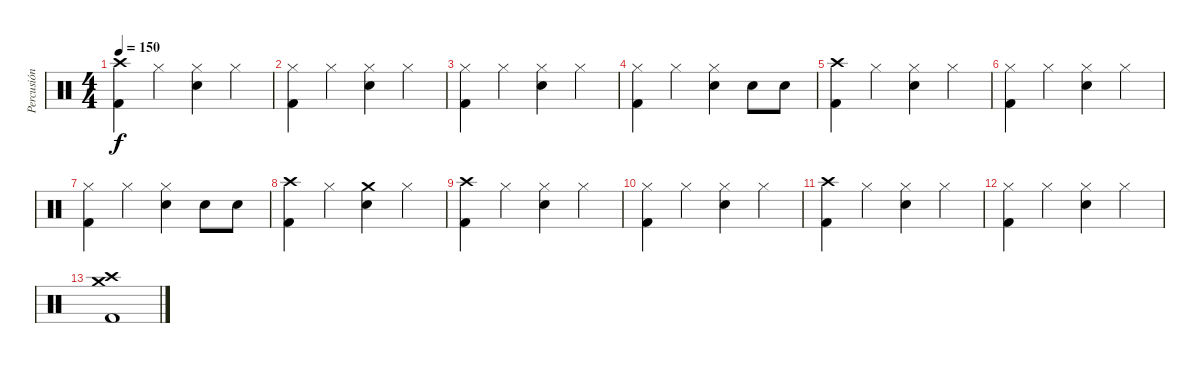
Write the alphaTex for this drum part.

\track ("Percusión" "Percusión") {instrument percussion}
\staff {score}
\articulation defaults
\ts (4 4)
\tempo 150
\clef neutral
\ks c
("Crash high (hit)" "Kick (hit) 2").4{dy f} "Hi-Hat (closed)".4 ("Hi-Hat (closed)" "Electric Snare (hit)").4 "Hi-Hat (closed)".4 |
("Hi-Hat (closed)" "Kick (hit) 2").4 "Hi-Hat (closed)".4 ("Hi-Hat (closed)" "Electric Snare (hit)").4 "Hi-Hat (closed)".4 |
("Hi-Hat (closed)" "Kick (hit) 2").4 "Hi-Hat (closed)".4 ("Hi-Hat (closed)" "Electric Snare (hit)").4 "Hi-Hat (closed)".4 |
("Hi-Hat (closed)" "Kick (hit) 2").4 "Hi-Hat (closed)".4 ("Hi-Hat (closed)" "Electric Snare (hit)").4 "Electric Snare (hit)".8 "Electric Snare (hit)".8 |
("Crash high (hit)" "Kick (hit) 2").4 "Hi-Hat (closed)".4 ("Hi-Hat (closed)" "Electric Snare (hit)").4 "Hi-Hat (closed)".4 |
("Hi-Hat (closed)" "Kick (hit) 2").4 "Hi-Hat (closed)".4 ("Hi-Hat (closed)" "Electric Snare (hit)").4 "Hi-Hat (closed)".4 |
("Hi-Hat (closed)" "Kick (hit) 2").4 "Hi-Hat (closed)".4 ("Hi-Hat (closed)" "Electric Snare (hit)").4 "Electric Snare (hit)".8 "Electric Snare (hit)".8 |
("Crash high (hit)" "Kick (hit) 2").4 "Hi-Hat (closed)".4 ("Crash medium (hit)" "Electric Snare (hit)").4 "Hi-Hat (closed)".4 |
("Crash high (hit)" "Kick (hit) 2").4 "Hi-Hat (closed)".4 ("Hi-Hat (closed)" "Electric Snare (hit)").4 "Hi-Hat (closed)".4 |
("Hi-Hat (closed)" "Kick (hit) 2").4 "Hi-Hat (closed)".4 ("Hi-Hat (closed)" "Electric Snare (hit)").4 "Hi-Hat (closed)".4 |
("Crash high (hit)" "Kick (hit) 2").4 "Hi-Hat (closed)".4 ("Hi-Hat (closed)" "Electric Snare (hit)").4 "Hi-Hat (closed)".4 |
("Hi-Hat (closed)" "Kick (hit) 2").4 "Hi-Hat (closed)".4 ("Hi-Hat (closed)" "Electric Snare (hit)").4 "Hi-Hat (closed)".4 |
("Crash high (hit)" "Crash medium (hit)" "Kick (hit) 2").1
